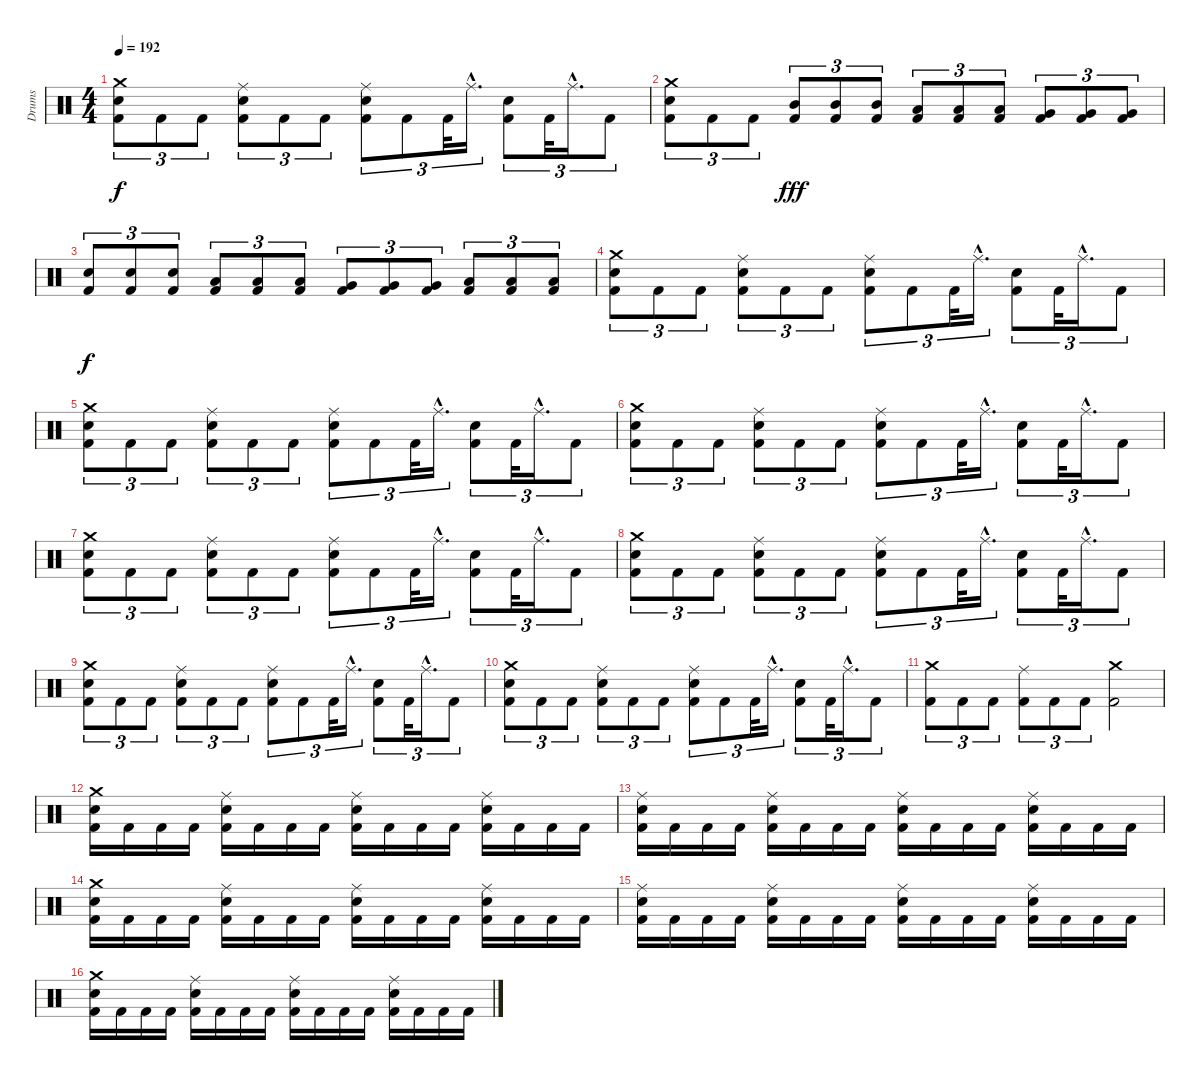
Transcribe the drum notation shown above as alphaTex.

\track ("Drums" "Drums") {instrument percussion}
\staff {score}
\articulation defaults
\ts (4 4)
\tempo 192
\clef neutral
\ks c
("Crash medium (hit)" "Electric Snare (hit)" "Kick (hit) 2").8{tu (3 2) dy f} "Kick (hit) 2".8{tu (3 2)} "Kick (hit) 2".8{tu (3 2)} ("Ride (middle)" "Electric Snare (hit)" "Kick (hit) 2").8{tu (3 2)} "Kick (hit) 2".8{tu (3 2)} "Kick (hit) 2".8{tu (3 2)} ("Ride (middle)" "Electric Snare (hit)" "Kick (hit) 2").8{tu (3 2)} "Kick (hit) 2".8{tu (3 2)} "Kick (hit) 2".32{tu (3 2)} "Ride (middle)"{hac}.16{d tu (3 2)} ("Electric Snare (hit)" "Kick (hit) 2").8{tu (3 2)} "Kick (hit) 2".32{tu (3 2)} "Ride (middle)"{hac}.16{d tu (3 2)} "Kick (hit) 2".8{tu (3 2)} |
("Crash medium (hit)" "Electric Snare (hit)" "Kick (hit) 2").8{tu (3 2)} "Kick (hit) 2".8{tu (3 2)} "Kick (hit) 2".8{tu (3 2)} ("Mid Tom (hit)" "Kick (hit) 2").8{tu (3 2) dy fff} ("Mid Tom (hit)" "Kick (hit) 2").8{tu (3 2)} ("Mid Tom (hit)" "Kick (hit) 2").8{tu (3 2)} ("Low Tom (hit)" "Kick (hit) 2").8{tu (3 2)} ("Low Tom (hit)" "Kick (hit) 2").8{tu (3 2)} ("Low Tom (hit)" "Kick (hit) 2").8{tu (3 2)} ("Very Low Tom (hit)" "Kick (hit) 2").8{tu (3 2)} ("Very Low Tom (hit)" "Kick (hit) 2").8{tu (3 2)} ("Very Low Tom (hit)" "Kick (hit) 2").8{tu (3 2)} |
("Electric Snare (hit)" "Kick (hit) 2").8{tu (3 2) dy f} ("Electric Snare (hit)" "Kick (hit) 2").8{tu (3 2)} ("Electric Snare (hit)" "Kick (hit) 2").8{tu (3 2)} ("Low Tom (hit)" "Kick (hit) 2").8{tu (3 2)} ("Low Tom (hit)" "Kick (hit) 2").8{tu (3 2)} ("Low Tom (hit)" "Kick (hit) 2").8{tu (3 2)} ("Very Low Tom (hit)" "Kick (hit) 2").8{tu (3 2)} ("Very Low Tom (hit)" "Kick (hit) 2").8{tu (3 2)} ("Very Low Tom (hit)" "Kick (hit) 2").8{tu (3 2)} ("Low Floor Tom (hit)" "Kick (hit) 2").8{tu (3 2)} ("Low Floor Tom (hit)" "Kick (hit) 2").8{tu (3 2)} ("Low Floor Tom (hit)" "Kick (hit) 2").8{tu (3 2)} |
("Crash medium (hit)" "Electric Snare (hit)" "Kick (hit) 2").8{tu (3 2)} "Kick (hit) 2".8{tu (3 2)} "Kick (hit) 2".8{tu (3 2)} ("Ride (middle)" "Electric Snare (hit)" "Kick (hit) 2").8{tu (3 2)} "Kick (hit) 2".8{tu (3 2)} "Kick (hit) 2".8{tu (3 2)} ("Ride (middle)" "Electric Snare (hit)" "Kick (hit) 2").8{tu (3 2)} "Kick (hit) 2".8{tu (3 2)} "Kick (hit) 2".32{tu (3 2)} "Ride (middle)"{hac}.16{d tu (3 2)} ("Electric Snare (hit)" "Kick (hit) 2").8{tu (3 2)} "Kick (hit) 2".32{tu (3 2)} "Ride (middle)"{hac}.16{d tu (3 2)} "Kick (hit) 2".8{tu (3 2)} |
("Crash medium (hit)" "Electric Snare (hit)" "Kick (hit) 2").8{tu (3 2)} "Kick (hit) 2".8{tu (3 2)} "Kick (hit) 2".8{tu (3 2)} ("Ride (middle)" "Electric Snare (hit)" "Kick (hit) 2").8{tu (3 2)} "Kick (hit) 2".8{tu (3 2)} "Kick (hit) 2".8{tu (3 2)} ("Ride (middle)" "Electric Snare (hit)" "Kick (hit) 2").8{tu (3 2)} "Kick (hit) 2".8{tu (3 2)} "Kick (hit) 2".32{tu (3 2)} "Ride (middle)"{hac}.16{d tu (3 2)} ("Electric Snare (hit)" "Kick (hit) 2").8{tu (3 2)} "Kick (hit) 2".32{tu (3 2)} "Ride (middle)"{hac}.16{d tu (3 2)} "Kick (hit) 2".8{tu (3 2)} |
("Crash medium (hit)" "Electric Snare (hit)" "Kick (hit) 2").8{tu (3 2)} "Kick (hit) 2".8{tu (3 2)} "Kick (hit) 2".8{tu (3 2)} ("Ride (middle)" "Electric Snare (hit)" "Kick (hit) 2").8{tu (3 2)} "Kick (hit) 2".8{tu (3 2)} "Kick (hit) 2".8{tu (3 2)} ("Ride (middle)" "Electric Snare (hit)" "Kick (hit) 2").8{tu (3 2)} "Kick (hit) 2".8{tu (3 2)} "Kick (hit) 2".32{tu (3 2)} "Ride (middle)"{hac}.16{d tu (3 2)} ("Electric Snare (hit)" "Kick (hit) 2").8{tu (3 2)} "Kick (hit) 2".32{tu (3 2)} "Ride (middle)"{hac}.16{d tu (3 2)} "Kick (hit) 2".8{tu (3 2)} |
("Crash medium (hit)" "Electric Snare (hit)" "Kick (hit) 2").8{tu (3 2)} "Kick (hit) 2".8{tu (3 2)} "Kick (hit) 2".8{tu (3 2)} ("Ride (middle)" "Electric Snare (hit)" "Kick (hit) 2").8{tu (3 2)} "Kick (hit) 2".8{tu (3 2)} "Kick (hit) 2".8{tu (3 2)} ("Ride (middle)" "Electric Snare (hit)" "Kick (hit) 2").8{tu (3 2)} "Kick (hit) 2".8{tu (3 2)} "Kick (hit) 2".32{tu (3 2)} "Ride (middle)"{hac}.16{d tu (3 2)} ("Electric Snare (hit)" "Kick (hit) 2").8{tu (3 2)} "Kick (hit) 2".32{tu (3 2)} "Ride (middle)"{hac}.16{d tu (3 2)} "Kick (hit) 2".8{tu (3 2)} |
("Crash medium (hit)" "Electric Snare (hit)" "Kick (hit) 2").8{tu (3 2)} "Kick (hit) 2".8{tu (3 2)} "Kick (hit) 2".8{tu (3 2)} ("Ride (middle)" "Electric Snare (hit)" "Kick (hit) 2").8{tu (3 2)} "Kick (hit) 2".8{tu (3 2)} "Kick (hit) 2".8{tu (3 2)} ("Ride (middle)" "Electric Snare (hit)" "Kick (hit) 2").8{tu (3 2)} "Kick (hit) 2".8{tu (3 2)} "Kick (hit) 2".32{tu (3 2)} "Ride (middle)"{hac}.16{d tu (3 2)} ("Electric Snare (hit)" "Kick (hit) 2").8{tu (3 2)} "Kick (hit) 2".32{tu (3 2)} "Ride (middle)"{hac}.16{d tu (3 2)} "Kick (hit) 2".8{tu (3 2)} |
("Crash medium (hit)" "Electric Snare (hit)" "Kick (hit) 2").8{tu (3 2)} "Kick (hit) 2".8{tu (3 2)} "Kick (hit) 2".8{tu (3 2)} ("Ride (middle)" "Electric Snare (hit)" "Kick (hit) 2").8{tu (3 2)} "Kick (hit) 2".8{tu (3 2)} "Kick (hit) 2".8{tu (3 2)} ("Ride (middle)" "Electric Snare (hit)" "Kick (hit) 2").8{tu (3 2)} "Kick (hit) 2".8{tu (3 2)} "Kick (hit) 2".32{tu (3 2)} "Ride (middle)"{hac}.16{d tu (3 2)} ("Electric Snare (hit)" "Kick (hit) 2").8{tu (3 2)} "Kick (hit) 2".32{tu (3 2)} "Ride (middle)"{hac}.16{d tu (3 2)} "Kick (hit) 2".8{tu (3 2)} |
("Crash medium (hit)" "Electric Snare (hit)" "Kick (hit) 2").8{tu (3 2)} "Kick (hit) 2".8{tu (3 2)} "Kick (hit) 2".8{tu (3 2)} ("Ride (middle)" "Electric Snare (hit)" "Kick (hit) 2").8{tu (3 2)} "Kick (hit) 2".8{tu (3 2)} "Kick (hit) 2".8{tu (3 2)} ("Ride (middle)" "Electric Snare (hit)" "Kick (hit) 2").8{tu (3 2)} "Kick (hit) 2".8{tu (3 2)} "Kick (hit) 2".32{tu (3 2)} "Ride (middle)"{hac}.16{d tu (3 2)} ("Electric Snare (hit)" "Kick (hit) 2").8{tu (3 2)} "Kick (hit) 2".32{tu (3 2)} "Ride (middle)"{hac}.16{d tu (3 2)} "Kick (hit) 2".8{tu (3 2)} |
("Crash medium (hit)" "Kick (hit) 2").8{tu (3 2)} "Kick (hit) 2".8{tu (3 2)} "Kick (hit) 2".8{tu (3 2)} ("Ride (middle)" "Kick (hit) 2").8{tu (3 2)} "Kick (hit) 2".8{tu (3 2)} "Kick (hit) 2".8{tu (3 2)} ("Crash medium (hit)" "Kick (hit) 2").2 |
("Crash medium (hit)" "Electric Snare (hit)" "Kick (hit) 2").16 "Kick (hit) 2".16 "Kick (hit) 2".16 "Kick (hit) 2".16 ("Ride (middle)" "Electric Snare (hit)" "Kick (hit) 2").16 "Kick (hit) 2".16 "Kick (hit) 2".16 "Kick (hit) 2".16 ("Ride (middle)" "Electric Snare (hit)" "Kick (hit) 2").16 "Kick (hit) 2".16 "Kick (hit) 2".16 "Kick (hit) 2".16 ("Ride (middle)" "Electric Snare (hit)" "Kick (hit) 2").16 "Kick (hit) 2".16 "Kick (hit) 2".16 "Kick (hit) 2".16 |
("Ride (middle)" "Electric Snare (hit)" "Kick (hit) 2").16 "Kick (hit) 2".16 "Kick (hit) 2".16 "Kick (hit) 2".16 ("Ride (middle)" "Electric Snare (hit)" "Kick (hit) 2").16 "Kick (hit) 2".16 "Kick (hit) 2".16 "Kick (hit) 2".16 ("Ride (middle)" "Electric Snare (hit)" "Kick (hit) 2").16 "Kick (hit) 2".16 "Kick (hit) 2".16 "Kick (hit) 2".16 ("Ride (middle)" "Electric Snare (hit)" "Kick (hit) 2").16 "Kick (hit) 2".16 "Kick (hit) 2".16 "Kick (hit) 2".16 |
("Crash medium (hit)" "Electric Snare (hit)" "Kick (hit) 2").16 "Kick (hit) 2".16 "Kick (hit) 2".16 "Kick (hit) 2".16 ("Ride (middle)" "Electric Snare (hit)" "Kick (hit) 2").16 "Kick (hit) 2".16 "Kick (hit) 2".16 "Kick (hit) 2".16 ("Ride (middle)" "Electric Snare (hit)" "Kick (hit) 2").16 "Kick (hit) 2".16 "Kick (hit) 2".16 "Kick (hit) 2".16 ("Ride (middle)" "Electric Snare (hit)" "Kick (hit) 2").16 "Kick (hit) 2".16 "Kick (hit) 2".16 "Kick (hit) 2".16 |
("Ride (middle)" "Electric Snare (hit)" "Kick (hit) 2").16 "Kick (hit) 2".16 "Kick (hit) 2".16 "Kick (hit) 2".16 ("Ride (middle)" "Electric Snare (hit)" "Kick (hit) 2").16 "Kick (hit) 2".16 "Kick (hit) 2".16 "Kick (hit) 2".16 ("Ride (middle)" "Electric Snare (hit)" "Kick (hit) 2").16 "Kick (hit) 2".16 "Kick (hit) 2".16 "Kick (hit) 2".16 ("Ride (middle)" "Electric Snare (hit)" "Kick (hit) 2").16 "Kick (hit) 2".16 "Kick (hit) 2".16 "Kick (hit) 2".16 |
("Crash medium (hit)" "Electric Snare (hit)" "Kick (hit) 2").16 "Kick (hit) 2".16 "Kick (hit) 2".16 "Kick (hit) 2".16 ("Ride (middle)" "Electric Snare (hit)" "Kick (hit) 2").16 "Kick (hit) 2".16 "Kick (hit) 2".16 "Kick (hit) 2".16 ("Ride (middle)" "Electric Snare (hit)" "Kick (hit) 2").16 "Kick (hit) 2".16 "Kick (hit) 2".16 "Kick (hit) 2".16 ("Ride (middle)" "Electric Snare (hit)" "Kick (hit) 2").16 "Kick (hit) 2".16 "Kick (hit) 2".16 "Kick (hit) 2".16
